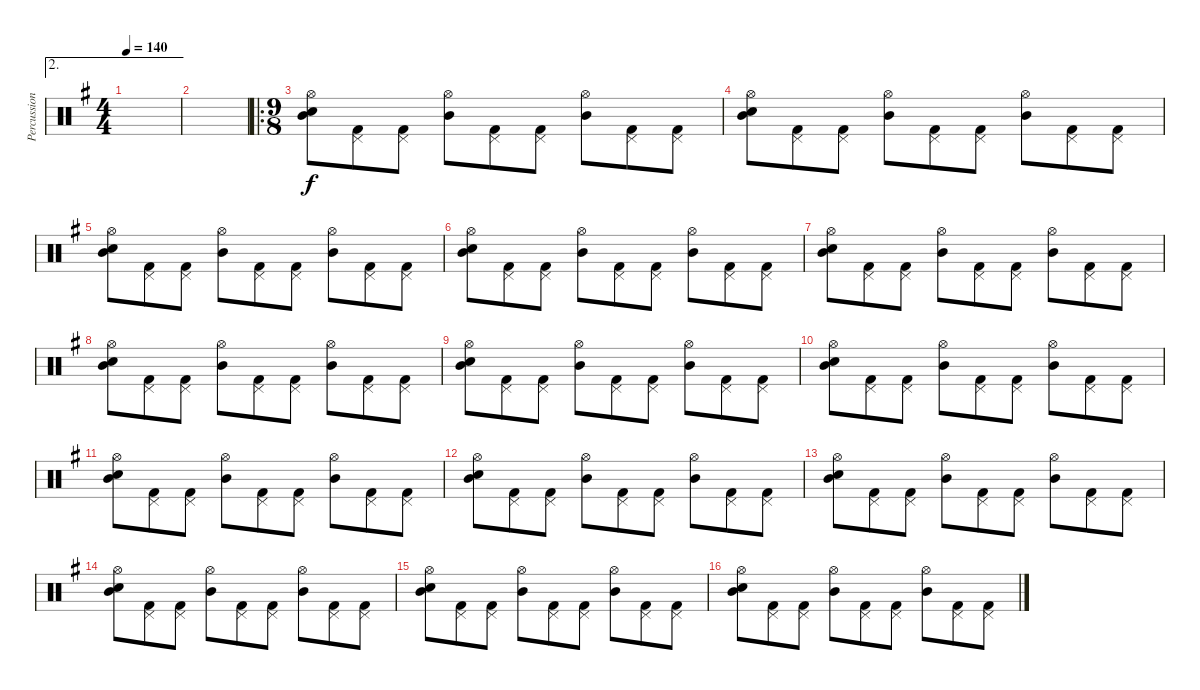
\track ("Percussion" "Percussion") {instrument percussion}
\staff {score}
\articulation defaults
\ae 2
\ts (4 4)
\tempo 140
\clef neutral
\ks g
|
|
\ro
\ts (9 8)
("Hi-Hat (open)" "Electric Snare (hit)" "Mid Tom (hit)").8 ("Kick (hit) 2" "Pedal Hi-Hat (hit)").8 ("Kick (hit) 2" "Pedal Hi-Hat (hit)").8 ("Hi-Hat (open)" "Mid Tom (hit)").8 ("Kick (hit) 2" "Pedal Hi-Hat (hit)").8 ("Kick (hit) 2" "Pedal Hi-Hat (hit)").8 ("Hi-Hat (open)" "Mid Tom (hit)").8 ("Kick (hit) 2" "Pedal Hi-Hat (hit)").8 ("Kick (hit) 2" "Pedal Hi-Hat (hit)").8 |
("Hi-Hat (open)" "Electric Snare (hit)" "Mid Tom (hit)").8 ("Kick (hit) 2" "Pedal Hi-Hat (hit)").8 ("Kick (hit) 2" "Pedal Hi-Hat (hit)").8 ("Hi-Hat (open)" "Mid Tom (hit)").8 ("Kick (hit) 2" "Pedal Hi-Hat (hit)").8 ("Kick (hit) 2" "Pedal Hi-Hat (hit)").8 ("Hi-Hat (open)" "Mid Tom (hit)").8 ("Kick (hit) 2" "Pedal Hi-Hat (hit)").8 ("Kick (hit) 2" "Pedal Hi-Hat (hit)").8 |
("Hi-Hat (open)" "Electric Snare (hit)" "Mid Tom (hit)").8 ("Kick (hit) 2" "Pedal Hi-Hat (hit)").8 ("Kick (hit) 2" "Pedal Hi-Hat (hit)").8 ("Hi-Hat (open)" "Mid Tom (hit)").8 ("Kick (hit) 2" "Pedal Hi-Hat (hit)").8 ("Kick (hit) 2" "Pedal Hi-Hat (hit)").8 ("Hi-Hat (open)" "Mid Tom (hit)").8 ("Kick (hit) 2" "Pedal Hi-Hat (hit)").8 ("Kick (hit) 2" "Pedal Hi-Hat (hit)").8 |
("Hi-Hat (open)" "Electric Snare (hit)" "Mid Tom (hit)").8 ("Kick (hit) 2" "Pedal Hi-Hat (hit)").8 ("Kick (hit) 2" "Pedal Hi-Hat (hit)").8 ("Hi-Hat (open)" "Mid Tom (hit)").8 ("Kick (hit) 2" "Pedal Hi-Hat (hit)").8 ("Kick (hit) 2" "Pedal Hi-Hat (hit)").8 ("Hi-Hat (open)" "Mid Tom (hit)").8 ("Kick (hit) 2" "Pedal Hi-Hat (hit)").8 ("Kick (hit) 2" "Pedal Hi-Hat (hit)").8 |
("Hi-Hat (open)" "Electric Snare (hit)" "Mid Tom (hit)").8 ("Kick (hit) 2" "Pedal Hi-Hat (hit)").8 ("Kick (hit) 2" "Pedal Hi-Hat (hit)").8 ("Hi-Hat (open)" "Mid Tom (hit)").8 ("Kick (hit) 2" "Pedal Hi-Hat (hit)").8 ("Kick (hit) 2" "Pedal Hi-Hat (hit)").8 ("Hi-Hat (open)" "Mid Tom (hit)").8 ("Kick (hit) 2" "Pedal Hi-Hat (hit)").8 ("Kick (hit) 2" "Pedal Hi-Hat (hit)").8 |
("Hi-Hat (open)" "Electric Snare (hit)" "Mid Tom (hit)").8 ("Kick (hit) 2" "Pedal Hi-Hat (hit)").8 ("Kick (hit) 2" "Pedal Hi-Hat (hit)").8 ("Hi-Hat (open)" "Mid Tom (hit)").8 ("Kick (hit) 2" "Pedal Hi-Hat (hit)").8 ("Kick (hit) 2" "Pedal Hi-Hat (hit)").8 ("Hi-Hat (open)" "Mid Tom (hit)").8 ("Kick (hit) 2" "Pedal Hi-Hat (hit)").8 ("Kick (hit) 2" "Pedal Hi-Hat (hit)").8 |
("Hi-Hat (open)" "Electric Snare (hit)" "Mid Tom (hit)").8 ("Kick (hit) 2" "Pedal Hi-Hat (hit)").8 ("Kick (hit) 2" "Pedal Hi-Hat (hit)").8 ("Hi-Hat (open)" "Mid Tom (hit)").8 ("Kick (hit) 2" "Pedal Hi-Hat (hit)").8 ("Kick (hit) 2" "Pedal Hi-Hat (hit)").8 ("Hi-Hat (open)" "Mid Tom (hit)").8 ("Kick (hit) 2" "Pedal Hi-Hat (hit)").8 ("Kick (hit) 2" "Pedal Hi-Hat (hit)").8 |
("Hi-Hat (open)" "Electric Snare (hit)" "Mid Tom (hit)").8 ("Kick (hit) 2" "Pedal Hi-Hat (hit)").8 ("Kick (hit) 2" "Pedal Hi-Hat (hit)").8 ("Hi-Hat (open)" "Mid Tom (hit)").8 ("Kick (hit) 2" "Pedal Hi-Hat (hit)").8 ("Kick (hit) 2" "Pedal Hi-Hat (hit)").8 ("Hi-Hat (open)" "Mid Tom (hit)").8 ("Kick (hit) 2" "Pedal Hi-Hat (hit)").8 ("Kick (hit) 2" "Pedal Hi-Hat (hit)").8 |
("Hi-Hat (open)" "Electric Snare (hit)" "Mid Tom (hit)").8 ("Kick (hit) 2" "Pedal Hi-Hat (hit)").8 ("Kick (hit) 2" "Pedal Hi-Hat (hit)").8 ("Hi-Hat (open)" "Mid Tom (hit)").8 ("Kick (hit) 2" "Pedal Hi-Hat (hit)").8 ("Kick (hit) 2" "Pedal Hi-Hat (hit)").8 ("Hi-Hat (open)" "Mid Tom (hit)").8 ("Kick (hit) 2" "Pedal Hi-Hat (hit)").8 ("Kick (hit) 2" "Pedal Hi-Hat (hit)").8 |
("Hi-Hat (open)" "Electric Snare (hit)" "Mid Tom (hit)").8 ("Kick (hit) 2" "Pedal Hi-Hat (hit)").8 ("Kick (hit) 2" "Pedal Hi-Hat (hit)").8 ("Hi-Hat (open)" "Mid Tom (hit)").8 ("Kick (hit) 2" "Pedal Hi-Hat (hit)").8 ("Kick (hit) 2" "Pedal Hi-Hat (hit)").8 ("Hi-Hat (open)" "Mid Tom (hit)").8 ("Kick (hit) 2" "Pedal Hi-Hat (hit)").8 ("Kick (hit) 2" "Pedal Hi-Hat (hit)").8 |
("Hi-Hat (open)" "Electric Snare (hit)" "Mid Tom (hit)").8 ("Kick (hit) 2" "Pedal Hi-Hat (hit)").8 ("Kick (hit) 2" "Pedal Hi-Hat (hit)").8 ("Hi-Hat (open)" "Mid Tom (hit)").8 ("Kick (hit) 2" "Pedal Hi-Hat (hit)").8 ("Kick (hit) 2" "Pedal Hi-Hat (hit)").8 ("Hi-Hat (open)" "Mid Tom (hit)").8 ("Kick (hit) 2" "Pedal Hi-Hat (hit)").8 ("Kick (hit) 2" "Pedal Hi-Hat (hit)").8 |
("Hi-Hat (open)" "Electric Snare (hit)" "Mid Tom (hit)").8 ("Kick (hit) 2" "Pedal Hi-Hat (hit)").8 ("Kick (hit) 2" "Pedal Hi-Hat (hit)").8 ("Hi-Hat (open)" "Mid Tom (hit)").8 ("Kick (hit) 2" "Pedal Hi-Hat (hit)").8 ("Kick (hit) 2" "Pedal Hi-Hat (hit)").8 ("Hi-Hat (open)" "Mid Tom (hit)").8 ("Kick (hit) 2" "Pedal Hi-Hat (hit)").8 ("Kick (hit) 2" "Pedal Hi-Hat (hit)").8 |
("Hi-Hat (open)" "Electric Snare (hit)" "Mid Tom (hit)").8 ("Kick (hit) 2" "Pedal Hi-Hat (hit)").8 ("Kick (hit) 2" "Pedal Hi-Hat (hit)").8 ("Hi-Hat (open)" "Mid Tom (hit)").8 ("Kick (hit) 2" "Pedal Hi-Hat (hit)").8 ("Kick (hit) 2" "Pedal Hi-Hat (hit)").8 ("Hi-Hat (open)" "Mid Tom (hit)").8 ("Kick (hit) 2" "Pedal Hi-Hat (hit)").8 ("Kick (hit) 2" "Pedal Hi-Hat (hit)").8 |
("Hi-Hat (open)" "Electric Snare (hit)" "Mid Tom (hit)").8 ("Kick (hit) 2" "Pedal Hi-Hat (hit)").8 ("Kick (hit) 2" "Pedal Hi-Hat (hit)").8 ("Hi-Hat (open)" "Mid Tom (hit)").8 ("Kick (hit) 2" "Pedal Hi-Hat (hit)").8 ("Kick (hit) 2" "Pedal Hi-Hat (hit)").8 ("Hi-Hat (open)" "Mid Tom (hit)").8 ("Kick (hit) 2" "Pedal Hi-Hat (hit)").8 ("Kick (hit) 2" "Pedal Hi-Hat (hit)").8
